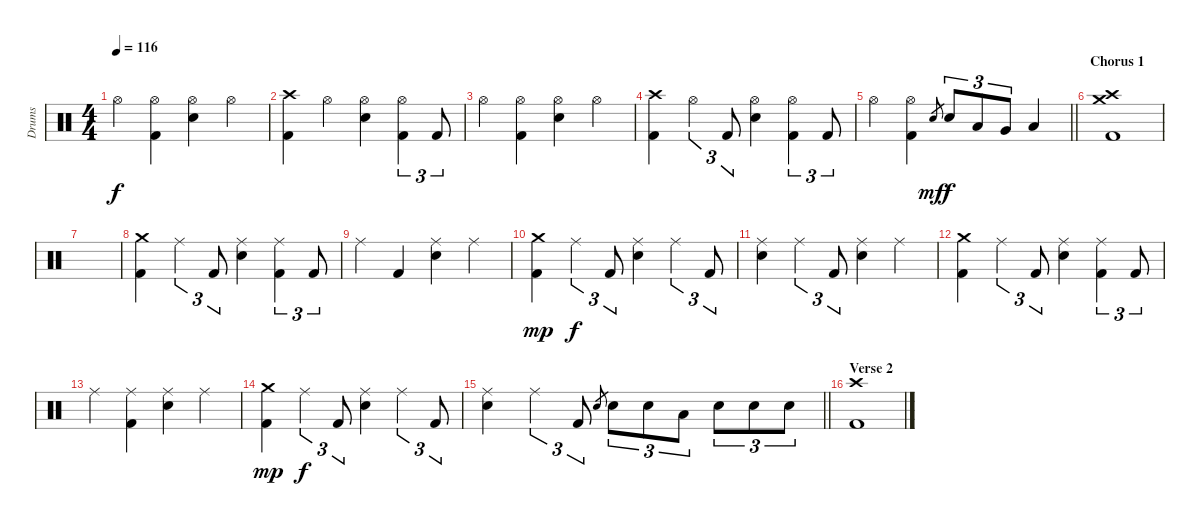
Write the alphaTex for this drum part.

\track ("Drums" "Drums") {instrument percussion}
\staff {score}
\articulation defaults
\ts (4 4)
\tempo 116
\clef neutral
\ks c "Hi-Hat (open)".4{dy f}
("Hi-Hat (open)" "Kick (hit) 2").4 ("Electric Snare (hit)" "Hi-Hat (open)").4 "Hi-Hat (open)".4 |
("Crash high (hit)" "Kick (hit) 2").4 "Hi-Hat (open)".4 ("Electric Snare (hit)" "Hi-Hat (open)").4 ("Hi-Hat (open)" "Kick (hit) 2").4{tu (3 2)} "Kick (hit) 2".8{tu (3 2)} |
"Hi-Hat (open)".4 ("Hi-Hat (open)" "Kick (hit) 2").4 ("Electric Snare (hit)" "Hi-Hat (open)").4 "Hi-Hat (open)".4 |
("Crash high (hit)" "Kick (hit) 2").4 "Hi-Hat (open)".4{tu (3 2)} "Kick (hit) 2".8{tu (3 2)} ("Electric Snare (hit)" "Hi-Hat (open)").4 ("Hi-Hat (open)" "Kick (hit) 2").4{tu (3 2)} "Kick (hit) 2".8{tu (3 2)} |
\barLineRight lightlight "Hi-Hat (open)".4
("Hi-Hat (open)" "Kick (hit) 2").4 "Electric Snare (hit)".8{gr dy mf} "Electric Snare (hit)".8{tu (3 2) dy f} "Low Tom (hit)".8{tu (3 2)} "Very Low Tom (hit)".8{tu (3 2)} "Low Floor Tom (hit)".4 |
\section ("" "Chorus 1")
("Crash medium (hit)" "Crash high (hit)" "Kick (hit) 2").1 |
|
("Crash medium (hit)" "Kick (hit) 2").4 "Ride (middle)".4{tu (3 2)} "Kick (hit) 2".8{tu (3 2)} ("Electric Snare (hit)" "Ride (middle)").4 ("Ride (middle)" "Kick (hit) 2").4{tu (3 2)} "Kick (hit) 2".8{tu (3 2)} |
"Ride (middle)".4 "Kick (hit) 2".4 ("Electric Snare (hit)" "Ride (middle)").4 "Ride (middle)".4 |
("Crash medium (hit)" "Kick (hit) 2").4{dy mp} "Ride (middle)".4{tu (3 2) dy f} "Kick (hit) 2".8{tu (3 2)} ("Electric Snare (hit)" "Ride (middle)").4 "Ride (middle)".4{tu (3 2)} "Kick (hit) 2".8{tu (3 2)} |
("Electric Snare (hit)" "Ride (middle)").4 "Ride (middle)".4{tu (3 2)} "Kick (hit) 2".8{tu (3 2)} ("Electric Snare (hit)" "Ride (middle)").4 "Ride (middle)".4 |
("Crash medium (hit)" "Kick (hit) 2").4 "Ride (middle)".4{tu (3 2)} "Kick (hit) 2".8{tu (3 2)} ("Electric Snare (hit)" "Ride (middle)").4 ("Ride (middle)" "Kick (hit) 2").4{tu (3 2)} "Kick (hit) 2".8{tu (3 2)} |
"Ride (middle)".4 ("Ride (middle)" "Kick (hit) 2").4 ("Electric Snare (hit)" "Ride (middle)").4 "Ride (middle)".4 |
("Crash medium (hit)" "Kick (hit) 2").4{dy mp} "Ride (middle)".4{tu (3 2) dy f} "Kick (hit) 2".8{tu (3 2)} ("Electric Snare (hit)" "Ride (middle)").4 "Ride (middle)".4{tu (3 2)} "Kick (hit) 2".8{tu (3 2)} |
\barLineRight lightlight
("Electric Snare (hit)" "Ride (middle)").4 "Ride (middle)".4{tu (3 2)} "Kick (hit) 2".8{tu (3 2)} "Electric Snare (hit)".8{gr} "Electric Snare (hit)".8{tu (3 2)} "Electric Snare (hit)".8{tu (3 2)} "Low Tom (hit)".8{tu (3 2)} "Electric Snare (hit)".8{tu (3 2)} "Electric Snare (hit)".8{tu (3 2)} "Electric Snare (hit)".8{tu (3 2)} |
\section ("" "Verse 2")
("Crash high (hit)" "Kick (hit) 2").1
